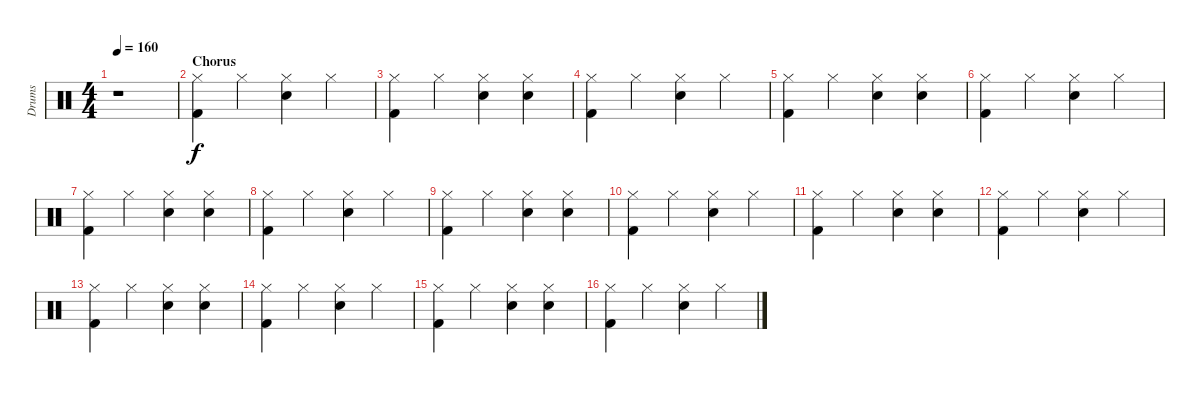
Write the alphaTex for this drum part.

\track ("Drums" "Drums") {instrument percussion}
\staff {score}
\articulation defaults
\ts (4 4)
\tempo 160
\clef neutral
\ks c
r.1{dy f} |
\section ("" "Chorus")
("Hi-Hat (closed)" "Kick (hit) 2").4 "Hi-Hat (closed)".4 ("Hi-Hat (closed)" "Snare (hit) 2").4 "Hi-Hat (closed)".4 |
("Hi-Hat (closed)" "Kick (hit) 2").4 "Hi-Hat (closed)".4 ("Hi-Hat (closed)" "Snare (hit) 2").4 ("Hi-Hat (closed)" "Snare (hit) 2").4 |
("Hi-Hat (closed)" "Kick (hit) 2").4 "Hi-Hat (closed)".4 ("Hi-Hat (closed)" "Snare (hit) 2").4 "Hi-Hat (closed)".4 |
("Hi-Hat (closed)" "Kick (hit) 2").4 "Hi-Hat (closed)".4 ("Hi-Hat (closed)" "Snare (hit) 2").4 ("Hi-Hat (closed)" "Snare (hit) 2").4 |
("Hi-Hat (closed)" "Kick (hit) 2").4 "Hi-Hat (closed)".4 ("Hi-Hat (closed)" "Snare (hit) 2").4 "Hi-Hat (closed)".4 |
("Hi-Hat (closed)" "Kick (hit) 2").4 "Hi-Hat (closed)".4 ("Hi-Hat (closed)" "Snare (hit) 2").4 ("Hi-Hat (closed)" "Snare (hit) 2").4 |
("Hi-Hat (closed)" "Kick (hit) 2").4 "Hi-Hat (closed)".4 ("Hi-Hat (closed)" "Snare (hit) 2").4 "Hi-Hat (closed)".4 |
("Hi-Hat (closed)" "Kick (hit) 2").4 "Hi-Hat (closed)".4 ("Hi-Hat (closed)" "Snare (hit) 2").4 ("Hi-Hat (closed)" "Snare (hit) 2").4 |
("Hi-Hat (closed)" "Kick (hit) 2").4{volume 8} "Hi-Hat (closed)".4 ("Hi-Hat (closed)" "Snare (hit) 2").4 "Hi-Hat (closed)".4 |
("Hi-Hat (closed)" "Kick (hit) 2").4 "Hi-Hat (closed)".4 ("Hi-Hat (closed)" "Snare (hit) 2").4 ("Hi-Hat (closed)" "Snare (hit) 2").4 |
("Hi-Hat (closed)" "Kick (hit) 2").4 "Hi-Hat (closed)".4 ("Hi-Hat (closed)" "Snare (hit) 2").4 "Hi-Hat (closed)".4 |
("Hi-Hat (closed)" "Kick (hit) 2").4 "Hi-Hat (closed)".4 ("Hi-Hat (closed)" "Snare (hit) 2").4 ("Hi-Hat (closed)" "Snare (hit) 2").4 |
("Hi-Hat (closed)" "Kick (hit) 2").4 "Hi-Hat (closed)".4 ("Hi-Hat (closed)" "Snare (hit) 2").4 "Hi-Hat (closed)".4 |
("Hi-Hat (closed)" "Kick (hit) 2").4 "Hi-Hat (closed)".4 ("Hi-Hat (closed)" "Snare (hit) 2").4 ("Hi-Hat (closed)" "Snare (hit) 2").4 |
("Hi-Hat (closed)" "Kick (hit) 2").4 "Hi-Hat (closed)".4 ("Hi-Hat (closed)" "Snare (hit) 2").4 "Hi-Hat (closed)".4
